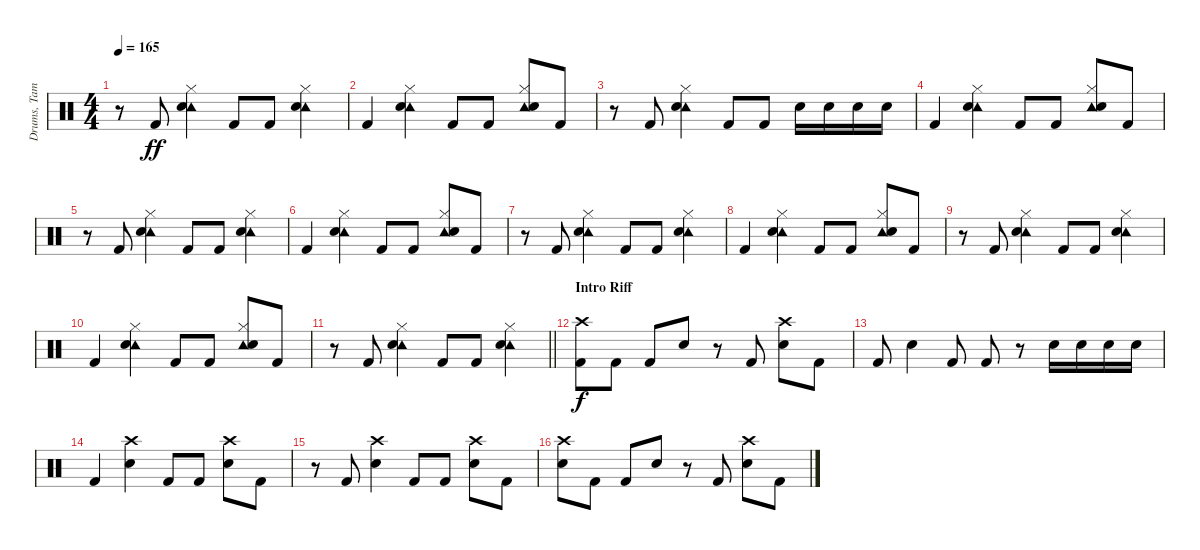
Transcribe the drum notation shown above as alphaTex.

\track ("Drums, Tambourine, Castinets" "Drums, Tam") {instrument percussion}
\staff {score}
\articulation defaults
\ts (4 4)
\tempo 165
\clef neutral
\ks c
r.8{dy ff} "Kick (hit) 2".8 ("Tambourine (hit)" "Hi-Hat (closed)" "Snare (hit) 2").4 "Kick (hit) 2".8 "Kick (hit) 2".8 ("Tambourine (hit)" "Hi-Hat (closed)" "Snare (hit) 2").4 |
"Kick (hit) 2".4 ("Tambourine (hit)" "Hi-Hat (closed)" "Snare (hit) 2").4 "Kick (hit) 2".8 "Kick (hit) 2".8 ("Tambourine (hit)" "Hi-Hat (closed)" "Snare (hit) 2").8 "Kick (hit) 2".8 |
r.8 "Kick (hit) 2".8 ("Tambourine (hit)" "Hi-Hat (closed)" "Snare (hit) 2").4 "Kick (hit) 2".8 "Kick (hit) 2".8 "Snare (hit) 2".16 "Snare (hit) 2".16 "Snare (hit) 2".16 "Snare (hit) 2".16 |
"Kick (hit) 2".4 ("Tambourine (hit)" "Hi-Hat (closed)" "Snare (hit) 2").4 "Kick (hit) 2".8 "Kick (hit) 2".8 ("Tambourine (hit)" "Hi-Hat (closed)" "Snare (hit) 2").8 "Kick (hit) 2".8 |
r.8 "Kick (hit) 2".8 ("Tambourine (hit)" "Hi-Hat (closed)" "Snare (hit) 2").4 "Kick (hit) 2".8 "Kick (hit) 2".8 ("Tambourine (hit)" "Hi-Hat (closed)" "Snare (hit) 2").4 |
"Kick (hit) 2".4 ("Tambourine (hit)" "Hi-Hat (closed)" "Snare (hit) 2").4 "Kick (hit) 2".8 "Kick (hit) 2".8 ("Tambourine (hit)" "Hi-Hat (closed)" "Snare (hit) 2").8 "Kick (hit) 2".8 |
r.8 "Kick (hit) 2".8 ("Tambourine (hit)" "Hi-Hat (closed)" "Snare (hit) 2").4 "Kick (hit) 2".8 "Kick (hit) 2".8 ("Tambourine (hit)" "Hi-Hat (closed)" "Snare (hit) 2").4 |
"Kick (hit) 2".4 ("Tambourine (hit)" "Hi-Hat (closed)" "Snare (hit) 2").4 "Kick (hit) 2".8 "Kick (hit) 2".8 ("Tambourine (hit)" "Hi-Hat (closed)" "Snare (hit) 2").8 "Kick (hit) 2".8 |
r.8 "Kick (hit) 2".8 ("Tambourine (hit)" "Hi-Hat (closed)" "Snare (hit) 2").4 "Kick (hit) 2".8 "Kick (hit) 2".8 ("Tambourine (hit)" "Hi-Hat (closed)" "Snare (hit) 2").4 |
"Kick (hit) 2".4 ("Tambourine (hit)" "Hi-Hat (closed)" "Snare (hit) 2").4 "Kick (hit) 2".8 "Kick (hit) 2".8 ("Tambourine (hit)" "Hi-Hat (closed)" "Snare (hit) 2").8 "Kick (hit) 2".8 |
\barLineRight lightlight
r.8 "Kick (hit) 2".8 ("Tambourine (hit)" "Hi-Hat (closed)" "Snare (hit) 2").4 "Kick (hit) 2".8 "Kick (hit) 2".8 ("Tambourine (hit)" "Hi-Hat (closed)" "Snare (hit) 2").4 |
\section ("" "Intro Riff")
("Crash high (hit)" "Kick (hit) 2").8{dy f} "Kick (hit) 2".8 "Kick (hit) 2".8 "Snare (hit) 2".8 r.8 "Kick (hit) 2".8 ("Crash high (hit)" "Snare (hit) 2").8 "Kick (hit) 2".8 |
"Kick (hit) 2".8 "Snare (hit) 2".4 "Kick (hit) 2".8 "Kick (hit) 2".8 r.8 "Snare (hit) 2".16 "Snare (hit) 2".16 "Snare (hit) 2".16 "Snare (hit) 2".16 |
"Kick (hit) 2".4 ("Crash high (hit)" "Snare (hit) 2").4 "Kick (hit) 2".8 "Kick (hit) 2".8 ("Crash high (hit)" "Snare (hit) 2").8 "Kick (hit) 2".8 |
r.8 "Kick (hit) 2".8 ("Crash high (hit)" "Snare (hit) 2").4 "Kick (hit) 2".8 "Kick (hit) 2".8 ("Crash high (hit)" "Snare (hit) 2").8 "Kick (hit) 2".8 |
("Crash high (hit)" "Snare (hit) 2").8 "Kick (hit) 2".8 "Kick (hit) 2".8 "Snare (hit) 2".8 r.8 "Kick (hit) 2".8 ("Crash high (hit)" "Snare (hit) 2").8 "Kick (hit) 2".8
